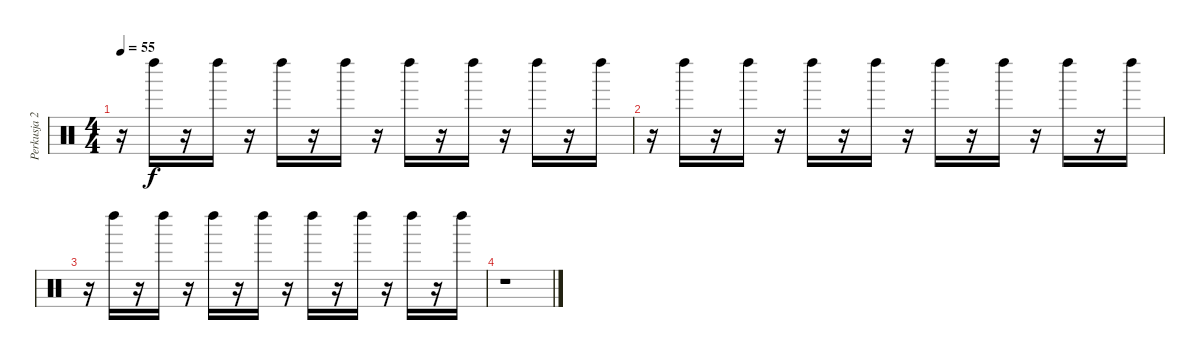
\track ("Perkusja 2" "Perkusja 2") {instrument percussion}
\staff {score}
\articulation defaults
\ts (4 4)
\tempo 55
\clef neutral
\ks c
r.16{dy f} "Left Maraca (hit)".16 r.16 "Left Maraca (hit)".16 r.16 "Left Maraca (hit)".16 r.16 "Left Maraca (hit)".16 r.16 "Left Maraca (hit)".16 r.16 "Left Maraca (hit)".16 r.16 "Left Maraca (hit)".16 r.16 "Left Maraca (hit)".16 |
r.16 "Left Maraca (hit)".16 r.16 "Left Maraca (hit)".16 r.16 "Left Maraca (hit)".16 r.16 "Left Maraca (hit)".16 r.16 "Left Maraca (hit)".16 r.16 "Left Maraca (hit)".16 r.16 "Left Maraca (hit)".16 r.16 "Left Maraca (hit)".16 |
r.16 "Left Maraca (hit)".16 r.16 "Left Maraca (hit)".16 r.16 "Left Maraca (hit)".16 r.16 "Left Maraca (hit)".16 r.16 "Left Maraca (hit)".16 r.16 "Left Maraca (hit)".16 r.16 "Left Maraca (hit)".16 r.16 "Left Maraca (hit)".16 |
r.1
